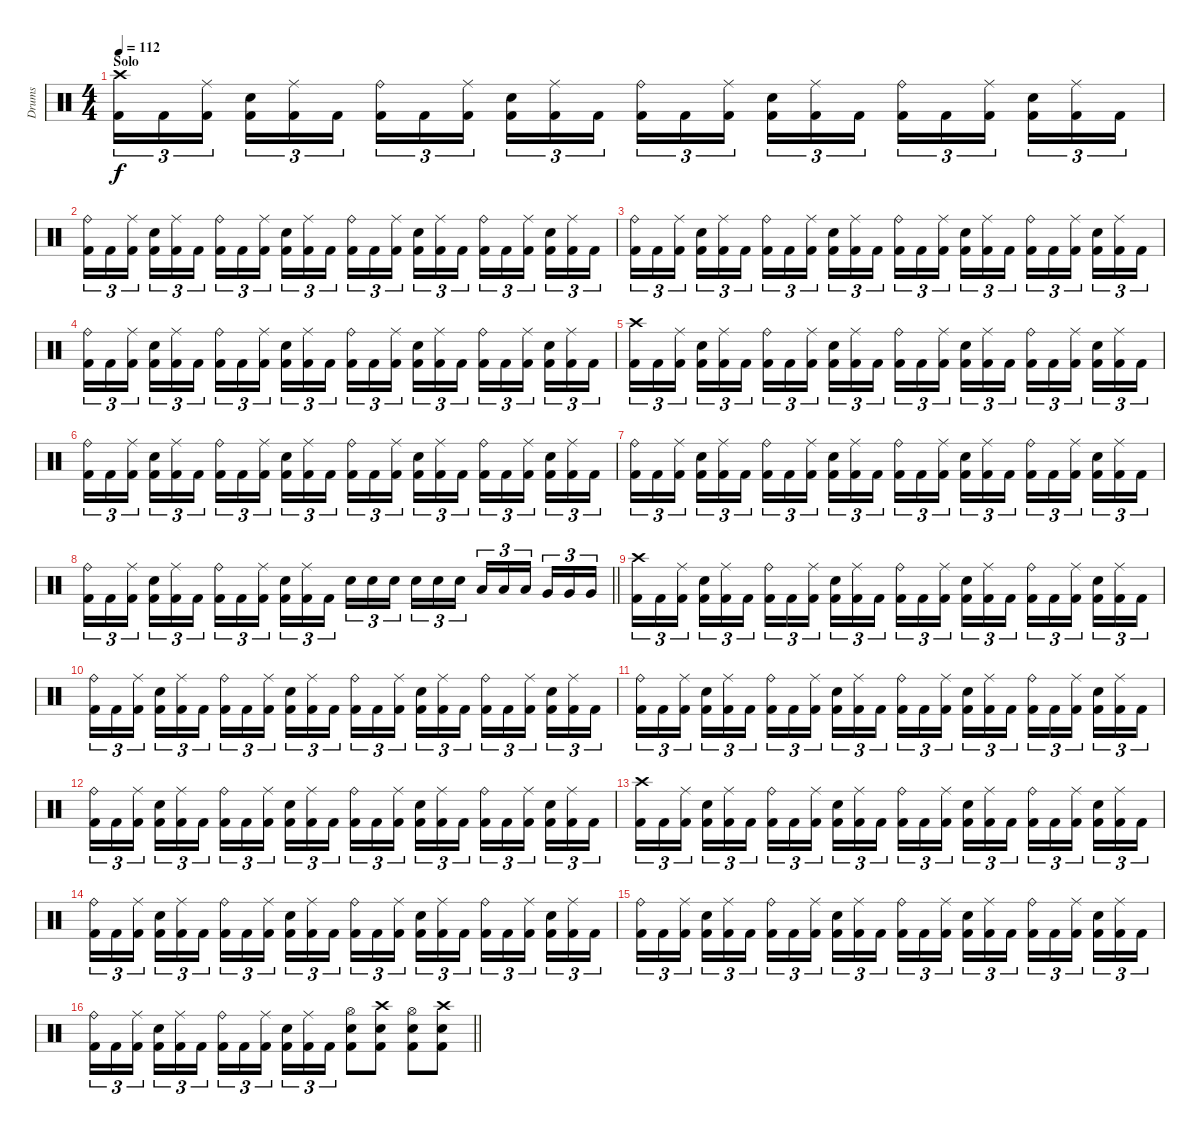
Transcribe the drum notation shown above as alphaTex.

\track ("Drums" "Drums") {instrument percussion}
\staff {score}
\articulation defaults
\ts (4 4)
\section ("" "Solo")
\tempo 112
\clef neutral
\ks c
("Crash high (hit)" "Kick (hit) 2").16{tu (3 2) dy f} "Kick (hit) 2".16{tu (3 2)} ("Ride (middle)" "Kick (hit) 2").16{tu (3 2) beam splitsecondary} ("Snare (hit) 2" "Kick (hit) 2").16{tu (3 2)} ("Ride (middle)" "Kick (hit) 2").16{tu (3 2)} "Kick (hit) 2".16{tu (3 2)} ("Ride (bell)" "Kick (hit) 2").16{tu (3 2)} "Kick (hit) 2".16{tu (3 2)} ("Ride (middle)" "Kick (hit) 2").16{tu (3 2) beam splitsecondary} ("Snare (hit) 2" "Kick (hit) 2").16{tu (3 2)} ("Ride (middle)" "Kick (hit) 2").16{tu (3 2)} "Kick (hit) 2".16{tu (3 2)} ("Ride (bell)" "Kick (hit) 2").16{tu (3 2)} "Kick (hit) 2".16{tu (3 2)} ("Ride (middle)" "Kick (hit) 2").16{tu (3 2) beam splitsecondary} ("Snare (hit) 2" "Kick (hit) 2").16{tu (3 2)} ("Ride (middle)" "Kick (hit) 2").16{tu (3 2)} "Kick (hit) 2".16{tu (3 2)} ("Ride (bell)" "Kick (hit) 2").16{tu (3 2)} "Kick (hit) 2".16{tu (3 2)} ("Ride (middle)" "Kick (hit) 2").16{tu (3 2) beam splitsecondary} ("Snare (hit) 2" "Kick (hit) 2").16{tu (3 2)} ("Ride (middle)" "Kick (hit) 2").16{tu (3 2)} "Kick (hit) 2".16{tu (3 2)} |
("Ride (bell)" "Kick (hit) 2").16{tu (3 2)} "Kick (hit) 2".16{tu (3 2)} ("Ride (middle)" "Kick (hit) 2").16{tu (3 2) beam splitsecondary} ("Snare (hit) 2" "Kick (hit) 2").16{tu (3 2)} ("Ride (middle)" "Kick (hit) 2").16{tu (3 2)} "Kick (hit) 2".16{tu (3 2)} ("Ride (bell)" "Kick (hit) 2").16{tu (3 2)} "Kick (hit) 2".16{tu (3 2)} ("Ride (middle)" "Kick (hit) 2").16{tu (3 2) beam splitsecondary} ("Snare (hit) 2" "Kick (hit) 2").16{tu (3 2)} ("Ride (middle)" "Kick (hit) 2").16{tu (3 2)} "Kick (hit) 2".16{tu (3 2)} ("Ride (bell)" "Kick (hit) 2").16{tu (3 2)} "Kick (hit) 2".16{tu (3 2)} ("Ride (middle)" "Kick (hit) 2").16{tu (3 2) beam splitsecondary} ("Snare (hit) 2" "Kick (hit) 2").16{tu (3 2)} ("Ride (middle)" "Kick (hit) 2").16{tu (3 2)} "Kick (hit) 2".16{tu (3 2)} ("Ride (bell)" "Kick (hit) 2").16{tu (3 2)} "Kick (hit) 2".16{tu (3 2)} ("Ride (middle)" "Kick (hit) 2").16{tu (3 2) beam splitsecondary} ("Snare (hit) 2" "Kick (hit) 2").16{tu (3 2)} ("Ride (middle)" "Kick (hit) 2").16{tu (3 2)} "Kick (hit) 2".16{tu (3 2)} |
("Ride (bell)" "Kick (hit) 2").16{tu (3 2)} "Kick (hit) 2".16{tu (3 2)} ("Ride (middle)" "Kick (hit) 2").16{tu (3 2) beam splitsecondary} ("Snare (hit) 2" "Kick (hit) 2").16{tu (3 2)} ("Ride (middle)" "Kick (hit) 2").16{tu (3 2)} "Kick (hit) 2".16{tu (3 2)} ("Ride (bell)" "Kick (hit) 2").16{tu (3 2)} "Kick (hit) 2".16{tu (3 2)} ("Ride (middle)" "Kick (hit) 2").16{tu (3 2) beam splitsecondary} ("Snare (hit) 2" "Kick (hit) 2").16{tu (3 2)} ("Ride (middle)" "Kick (hit) 2").16{tu (3 2)} "Kick (hit) 2".16{tu (3 2)} ("Ride (bell)" "Kick (hit) 2").16{tu (3 2)} "Kick (hit) 2".16{tu (3 2)} ("Ride (middle)" "Kick (hit) 2").16{tu (3 2) beam splitsecondary} ("Snare (hit) 2" "Kick (hit) 2").16{tu (3 2)} ("Ride (middle)" "Kick (hit) 2").16{tu (3 2)} "Kick (hit) 2".16{tu (3 2)} ("Ride (bell)" "Kick (hit) 2").16{tu (3 2)} "Kick (hit) 2".16{tu (3 2)} ("Ride (middle)" "Kick (hit) 2").16{tu (3 2) beam splitsecondary} ("Snare (hit) 2" "Kick (hit) 2").16{tu (3 2)} ("Ride (middle)" "Kick (hit) 2").16{tu (3 2)} "Kick (hit) 2".16{tu (3 2)} |
("Ride (bell)" "Kick (hit) 2").16{tu (3 2)} "Kick (hit) 2".16{tu (3 2)} ("Ride (middle)" "Kick (hit) 2").16{tu (3 2) beam splitsecondary} ("Snare (hit) 2" "Kick (hit) 2").16{tu (3 2)} ("Ride (middle)" "Kick (hit) 2").16{tu (3 2)} "Kick (hit) 2".16{tu (3 2)} ("Ride (bell)" "Kick (hit) 2").16{tu (3 2)} "Kick (hit) 2".16{tu (3 2)} ("Ride (middle)" "Kick (hit) 2").16{tu (3 2) beam splitsecondary} ("Snare (hit) 2" "Kick (hit) 2").16{tu (3 2)} ("Ride (middle)" "Kick (hit) 2").16{tu (3 2)} "Kick (hit) 2".16{tu (3 2)} ("Ride (bell)" "Kick (hit) 2").16{tu (3 2)} "Kick (hit) 2".16{tu (3 2)} ("Ride (middle)" "Kick (hit) 2").16{tu (3 2) beam splitsecondary} ("Snare (hit) 2" "Kick (hit) 2").16{tu (3 2)} ("Ride (middle)" "Kick (hit) 2").16{tu (3 2)} "Kick (hit) 2".16{tu (3 2)} ("Ride (bell)" "Kick (hit) 2").16{tu (3 2)} "Kick (hit) 2".16{tu (3 2)} ("Ride (middle)" "Kick (hit) 2").16{tu (3 2) beam splitsecondary} ("Snare (hit) 2" "Kick (hit) 2").16{tu (3 2)} ("Ride (middle)" "Kick (hit) 2").16{tu (3 2)} "Kick (hit) 2".16{tu (3 2)} |
("Crash high (hit)" "Kick (hit) 2").16{tu (3 2)} "Kick (hit) 2".16{tu (3 2)} ("Ride (middle)" "Kick (hit) 2").16{tu (3 2) beam splitsecondary} ("Snare (hit) 2" "Kick (hit) 2").16{tu (3 2)} ("Ride (middle)" "Kick (hit) 2").16{tu (3 2)} "Kick (hit) 2".16{tu (3 2)} ("Ride (bell)" "Kick (hit) 2").16{tu (3 2)} "Kick (hit) 2".16{tu (3 2)} ("Ride (middle)" "Kick (hit) 2").16{tu (3 2) beam splitsecondary} ("Snare (hit) 2" "Kick (hit) 2").16{tu (3 2)} ("Ride (middle)" "Kick (hit) 2").16{tu (3 2)} "Kick (hit) 2".16{tu (3 2)} ("Ride (bell)" "Kick (hit) 2").16{tu (3 2)} "Kick (hit) 2".16{tu (3 2)} ("Ride (middle)" "Kick (hit) 2").16{tu (3 2) beam splitsecondary} ("Snare (hit) 2" "Kick (hit) 2").16{tu (3 2)} ("Ride (middle)" "Kick (hit) 2").16{tu (3 2)} "Kick (hit) 2".16{tu (3 2)} ("Ride (bell)" "Kick (hit) 2").16{tu (3 2)} "Kick (hit) 2".16{tu (3 2)} ("Ride (middle)" "Kick (hit) 2").16{tu (3 2) beam splitsecondary} ("Snare (hit) 2" "Kick (hit) 2").16{tu (3 2)} ("Ride (middle)" "Kick (hit) 2").16{tu (3 2)} "Kick (hit) 2".16{tu (3 2)} |
("Ride (bell)" "Kick (hit) 2").16{tu (3 2)} "Kick (hit) 2".16{tu (3 2)} ("Ride (middle)" "Kick (hit) 2").16{tu (3 2) beam splitsecondary} ("Snare (hit) 2" "Kick (hit) 2").16{tu (3 2)} ("Ride (middle)" "Kick (hit) 2").16{tu (3 2)} "Kick (hit) 2".16{tu (3 2)} ("Ride (bell)" "Kick (hit) 2").16{tu (3 2)} "Kick (hit) 2".16{tu (3 2)} ("Ride (middle)" "Kick (hit) 2").16{tu (3 2) beam splitsecondary} ("Snare (hit) 2" "Kick (hit) 2").16{tu (3 2)} ("Ride (middle)" "Kick (hit) 2").16{tu (3 2)} "Kick (hit) 2".16{tu (3 2)} ("Ride (bell)" "Kick (hit) 2").16{tu (3 2)} "Kick (hit) 2".16{tu (3 2)} ("Ride (middle)" "Kick (hit) 2").16{tu (3 2) beam splitsecondary} ("Snare (hit) 2" "Kick (hit) 2").16{tu (3 2)} ("Ride (middle)" "Kick (hit) 2").16{tu (3 2)} "Kick (hit) 2".16{tu (3 2)} ("Ride (bell)" "Kick (hit) 2").16{tu (3 2)} "Kick (hit) 2".16{tu (3 2)} ("Ride (middle)" "Kick (hit) 2").16{tu (3 2) beam splitsecondary} ("Snare (hit) 2" "Kick (hit) 2").16{tu (3 2)} ("Ride (middle)" "Kick (hit) 2").16{tu (3 2)} "Kick (hit) 2".16{tu (3 2)} |
("Ride (bell)" "Kick (hit) 2").16{tu (3 2)} "Kick (hit) 2".16{tu (3 2)} ("Ride (middle)" "Kick (hit) 2").16{tu (3 2) beam splitsecondary} ("Snare (hit) 2" "Kick (hit) 2").16{tu (3 2)} ("Ride (middle)" "Kick (hit) 2").16{tu (3 2)} "Kick (hit) 2".16{tu (3 2)} ("Ride (bell)" "Kick (hit) 2").16{tu (3 2)} "Kick (hit) 2".16{tu (3 2)} ("Ride (middle)" "Kick (hit) 2").16{tu (3 2) beam splitsecondary} ("Snare (hit) 2" "Kick (hit) 2").16{tu (3 2)} ("Ride (middle)" "Kick (hit) 2").16{tu (3 2)} "Kick (hit) 2".16{tu (3 2)} ("Ride (bell)" "Kick (hit) 2").16{tu (3 2)} "Kick (hit) 2".16{tu (3 2)} ("Ride (middle)" "Kick (hit) 2").16{tu (3 2) beam splitsecondary} ("Snare (hit) 2" "Kick (hit) 2").16{tu (3 2)} ("Ride (middle)" "Kick (hit) 2").16{tu (3 2)} "Kick (hit) 2".16{tu (3 2)} ("Ride (bell)" "Kick (hit) 2").16{tu (3 2)} "Kick (hit) 2".16{tu (3 2)} ("Ride (middle)" "Kick (hit) 2").16{tu (3 2) beam splitsecondary} ("Snare (hit) 2" "Kick (hit) 2").16{tu (3 2)} ("Ride (middle)" "Kick (hit) 2").16{tu (3 2)} "Kick (hit) 2".16{tu (3 2)} |
\barLineRight lightlight
("Ride (bell)" "Kick (hit) 2").16{tu (3 2)} "Kick (hit) 2".16{tu (3 2)} ("Ride (middle)" "Kick (hit) 2").16{tu (3 2) beam splitsecondary} ("Snare (hit) 2" "Kick (hit) 2").16{tu (3 2)} ("Ride (middle)" "Kick (hit) 2").16{tu (3 2)} "Kick (hit) 2".16{tu (3 2)} ("Ride (bell)" "Kick (hit) 2").16{tu (3 2)} "Kick (hit) 2".16{tu (3 2)} ("Ride (middle)" "Kick (hit) 2").16{tu (3 2) beam splitsecondary} ("Snare (hit) 2" "Kick (hit) 2").16{tu (3 2)} ("Ride (middle)" "Kick (hit) 2").16{tu (3 2)} "Kick (hit) 2".16{tu (3 2)} "Snare (hit) 2".16{tu (3 2)} "Snare (hit) 2".16{tu (3 2)} "Snare (hit) 2".16{tu (3 2) beam splitsecondary} "Snare (hit) 2".16{tu (3 2)} "Snare (hit) 2".16{tu (3 2)} "Snare (hit) 2".16{tu (3 2)} "Low Tom (hit)".16{tu (3 2)} "Low Tom (hit)".16{tu (3 2)} "Low Tom (hit)".16{tu (3 2) beam splitsecondary} "Very Low Tom (hit)".16{tu (3 2)} "Very Low Tom (hit)".16{tu (3 2)} "Very Low Tom (hit)".16{tu (3 2)} |
("Crash high (hit)" "Kick (hit) 2").16{tu (3 2)} "Kick (hit) 2".16{tu (3 2)} ("Ride (middle)" "Kick (hit) 2").16{tu (3 2) beam splitsecondary} ("Snare (hit) 2" "Kick (hit) 2").16{tu (3 2)} ("Ride (middle)" "Kick (hit) 2").16{tu (3 2)} "Kick (hit) 2".16{tu (3 2)} ("Ride (bell)" "Kick (hit) 2").16{tu (3 2)} "Kick (hit) 2".16{tu (3 2)} ("Ride (middle)" "Kick (hit) 2").16{tu (3 2) beam splitsecondary} ("Snare (hit) 2" "Kick (hit) 2").16{tu (3 2)} ("Ride (middle)" "Kick (hit) 2").16{tu (3 2)} "Kick (hit) 2".16{tu (3 2)} ("Ride (bell)" "Kick (hit) 2").16{tu (3 2)} "Kick (hit) 2".16{tu (3 2)} ("Ride (middle)" "Kick (hit) 2").16{tu (3 2) beam splitsecondary} ("Snare (hit) 2" "Kick (hit) 2").16{tu (3 2)} ("Ride (middle)" "Kick (hit) 2").16{tu (3 2)} "Kick (hit) 2".16{tu (3 2)} ("Ride (bell)" "Kick (hit) 2").16{tu (3 2)} "Kick (hit) 2".16{tu (3 2)} ("Ride (middle)" "Kick (hit) 2").16{tu (3 2) beam splitsecondary} ("Snare (hit) 2" "Kick (hit) 2").16{tu (3 2)} ("Ride (middle)" "Kick (hit) 2").16{tu (3 2)} "Kick (hit) 2".16{tu (3 2)} |
("Ride (bell)" "Kick (hit) 2").16{tu (3 2)} "Kick (hit) 2".16{tu (3 2)} ("Ride (middle)" "Kick (hit) 2").16{tu (3 2) beam splitsecondary} ("Snare (hit) 2" "Kick (hit) 2").16{tu (3 2)} ("Ride (middle)" "Kick (hit) 2").16{tu (3 2)} "Kick (hit) 2".16{tu (3 2)} ("Ride (bell)" "Kick (hit) 2").16{tu (3 2)} "Kick (hit) 2".16{tu (3 2)} ("Ride (middle)" "Kick (hit) 2").16{tu (3 2) beam splitsecondary} ("Snare (hit) 2" "Kick (hit) 2").16{tu (3 2)} ("Ride (middle)" "Kick (hit) 2").16{tu (3 2)} "Kick (hit) 2".16{tu (3 2)} ("Ride (bell)" "Kick (hit) 2").16{tu (3 2)} "Kick (hit) 2".16{tu (3 2)} ("Ride (middle)" "Kick (hit) 2").16{tu (3 2) beam splitsecondary} ("Snare (hit) 2" "Kick (hit) 2").16{tu (3 2)} ("Ride (middle)" "Kick (hit) 2").16{tu (3 2)} "Kick (hit) 2".16{tu (3 2)} ("Ride (bell)" "Kick (hit) 2").16{tu (3 2)} "Kick (hit) 2".16{tu (3 2)} ("Ride (middle)" "Kick (hit) 2").16{tu (3 2) beam splitsecondary} ("Snare (hit) 2" "Kick (hit) 2").16{tu (3 2)} ("Ride (middle)" "Kick (hit) 2").16{tu (3 2)} "Kick (hit) 2".16{tu (3 2)} |
("Ride (bell)" "Kick (hit) 2").16{tu (3 2)} "Kick (hit) 2".16{tu (3 2)} ("Ride (middle)" "Kick (hit) 2").16{tu (3 2) beam splitsecondary} ("Snare (hit) 2" "Kick (hit) 2").16{tu (3 2)} ("Ride (middle)" "Kick (hit) 2").16{tu (3 2)} "Kick (hit) 2".16{tu (3 2)} ("Ride (bell)" "Kick (hit) 2").16{tu (3 2)} "Kick (hit) 2".16{tu (3 2)} ("Ride (middle)" "Kick (hit) 2").16{tu (3 2) beam splitsecondary} ("Snare (hit) 2" "Kick (hit) 2").16{tu (3 2)} ("Ride (middle)" "Kick (hit) 2").16{tu (3 2)} "Kick (hit) 2".16{tu (3 2)} ("Ride (bell)" "Kick (hit) 2").16{tu (3 2)} "Kick (hit) 2".16{tu (3 2)} ("Ride (middle)" "Kick (hit) 2").16{tu (3 2) beam splitsecondary} ("Snare (hit) 2" "Kick (hit) 2").16{tu (3 2)} ("Ride (middle)" "Kick (hit) 2").16{tu (3 2)} "Kick (hit) 2".16{tu (3 2)} ("Ride (bell)" "Kick (hit) 2").16{tu (3 2)} "Kick (hit) 2".16{tu (3 2)} ("Ride (middle)" "Kick (hit) 2").16{tu (3 2) beam splitsecondary} ("Snare (hit) 2" "Kick (hit) 2").16{tu (3 2)} ("Ride (middle)" "Kick (hit) 2").16{tu (3 2)} "Kick (hit) 2".16{tu (3 2)} |
("Ride (bell)" "Kick (hit) 2").16{tu (3 2)} "Kick (hit) 2".16{tu (3 2)} ("Ride (middle)" "Kick (hit) 2").16{tu (3 2) beam splitsecondary} ("Snare (hit) 2" "Kick (hit) 2").16{tu (3 2)} ("Ride (middle)" "Kick (hit) 2").16{tu (3 2)} "Kick (hit) 2".16{tu (3 2)} ("Ride (bell)" "Kick (hit) 2").16{tu (3 2)} "Kick (hit) 2".16{tu (3 2)} ("Ride (middle)" "Kick (hit) 2").16{tu (3 2) beam splitsecondary} ("Snare (hit) 2" "Kick (hit) 2").16{tu (3 2)} ("Ride (middle)" "Kick (hit) 2").16{tu (3 2)} "Kick (hit) 2".16{tu (3 2)} ("Ride (bell)" "Kick (hit) 2").16{tu (3 2)} "Kick (hit) 2".16{tu (3 2)} ("Ride (middle)" "Kick (hit) 2").16{tu (3 2) beam splitsecondary} ("Snare (hit) 2" "Kick (hit) 2").16{tu (3 2)} ("Ride (middle)" "Kick (hit) 2").16{tu (3 2)} "Kick (hit) 2".16{tu (3 2)} ("Ride (bell)" "Kick (hit) 2").16{tu (3 2)} "Kick (hit) 2".16{tu (3 2)} ("Ride (middle)" "Kick (hit) 2").16{tu (3 2) beam splitsecondary} ("Snare (hit) 2" "Kick (hit) 2").16{tu (3 2)} ("Ride (middle)" "Kick (hit) 2").16{tu (3 2)} "Kick (hit) 2".16{tu (3 2)} |
("Crash high (hit)" "Kick (hit) 2").16{tu (3 2)} "Kick (hit) 2".16{tu (3 2)} ("Ride (middle)" "Kick (hit) 2").16{tu (3 2) beam splitsecondary} ("Snare (hit) 2" "Kick (hit) 2").16{tu (3 2)} ("Ride (middle)" "Kick (hit) 2").16{tu (3 2)} "Kick (hit) 2".16{tu (3 2)} ("Ride (bell)" "Kick (hit) 2").16{tu (3 2)} "Kick (hit) 2".16{tu (3 2)} ("Ride (middle)" "Kick (hit) 2").16{tu (3 2) beam splitsecondary} ("Snare (hit) 2" "Kick (hit) 2").16{tu (3 2)} ("Ride (middle)" "Kick (hit) 2").16{tu (3 2)} "Kick (hit) 2".16{tu (3 2)} ("Ride (bell)" "Kick (hit) 2").16{tu (3 2)} "Kick (hit) 2".16{tu (3 2)} ("Ride (middle)" "Kick (hit) 2").16{tu (3 2) beam splitsecondary} ("Snare (hit) 2" "Kick (hit) 2").16{tu (3 2)} ("Ride (middle)" "Kick (hit) 2").16{tu (3 2)} "Kick (hit) 2".16{tu (3 2)} ("Ride (bell)" "Kick (hit) 2").16{tu (3 2)} "Kick (hit) 2".16{tu (3 2)} ("Ride (middle)" "Kick (hit) 2").16{tu (3 2) beam splitsecondary} ("Snare (hit) 2" "Kick (hit) 2").16{tu (3 2)} ("Ride (middle)" "Kick (hit) 2").16{tu (3 2)} "Kick (hit) 2".16{tu (3 2)} |
("Ride (bell)" "Kick (hit) 2").16{tu (3 2)} "Kick (hit) 2".16{tu (3 2)} ("Ride (middle)" "Kick (hit) 2").16{tu (3 2) beam splitsecondary} ("Snare (hit) 2" "Kick (hit) 2").16{tu (3 2)} ("Ride (middle)" "Kick (hit) 2").16{tu (3 2)} "Kick (hit) 2".16{tu (3 2)} ("Ride (bell)" "Kick (hit) 2").16{tu (3 2)} "Kick (hit) 2".16{tu (3 2)} ("Ride (middle)" "Kick (hit) 2").16{tu (3 2) beam splitsecondary} ("Snare (hit) 2" "Kick (hit) 2").16{tu (3 2)} ("Ride (middle)" "Kick (hit) 2").16{tu (3 2)} "Kick (hit) 2".16{tu (3 2)} ("Ride (bell)" "Kick (hit) 2").16{tu (3 2)} "Kick (hit) 2".16{tu (3 2)} ("Ride (middle)" "Kick (hit) 2").16{tu (3 2) beam splitsecondary} ("Snare (hit) 2" "Kick (hit) 2").16{tu (3 2)} ("Ride (middle)" "Kick (hit) 2").16{tu (3 2)} "Kick (hit) 2".16{tu (3 2)} ("Ride (bell)" "Kick (hit) 2").16{tu (3 2)} "Kick (hit) 2".16{tu (3 2)} ("Ride (middle)" "Kick (hit) 2").16{tu (3 2) beam splitsecondary} ("Snare (hit) 2" "Kick (hit) 2").16{tu (3 2)} ("Ride (middle)" "Kick (hit) 2").16{tu (3 2)} "Kick (hit) 2".16{tu (3 2)} |
("Ride (bell)" "Kick (hit) 2").16{tu (3 2)} "Kick (hit) 2".16{tu (3 2)} ("Ride (middle)" "Kick (hit) 2").16{tu (3 2) beam splitsecondary} ("Snare (hit) 2" "Kick (hit) 2").16{tu (3 2)} ("Ride (middle)" "Kick (hit) 2").16{tu (3 2)} "Kick (hit) 2".16{tu (3 2)} ("Ride (bell)" "Kick (hit) 2").16{tu (3 2)} "Kick (hit) 2".16{tu (3 2)} ("Ride (middle)" "Kick (hit) 2").16{tu (3 2) beam splitsecondary} ("Snare (hit) 2" "Kick (hit) 2").16{tu (3 2)} ("Ride (middle)" "Kick (hit) 2").16{tu (3 2)} "Kick (hit) 2".16{tu (3 2)} ("Ride (bell)" "Kick (hit) 2").16{tu (3 2)} "Kick (hit) 2".16{tu (3 2)} ("Ride (middle)" "Kick (hit) 2").16{tu (3 2) beam splitsecondary} ("Snare (hit) 2" "Kick (hit) 2").16{tu (3 2)} ("Ride (middle)" "Kick (hit) 2").16{tu (3 2)} "Kick (hit) 2".16{tu (3 2)} ("Ride (bell)" "Kick (hit) 2").16{tu (3 2)} "Kick (hit) 2".16{tu (3 2)} ("Ride (middle)" "Kick (hit) 2").16{tu (3 2) beam splitsecondary} ("Snare (hit) 2" "Kick (hit) 2").16{tu (3 2)} ("Ride (middle)" "Kick (hit) 2").16{tu (3 2)} "Kick (hit) 2".16{tu (3 2)} |
\barLineRight lightlight
("Ride (bell)" "Kick (hit) 2").16{tu (3 2)} "Kick (hit) 2".16{tu (3 2)} ("Ride (middle)" "Kick (hit) 2").16{tu (3 2) beam splitsecondary} ("Snare (hit) 2" "Kick (hit) 2").16{tu (3 2)} ("Ride (middle)" "Kick (hit) 2").16{tu (3 2)} "Kick (hit) 2".16{tu (3 2)} ("Ride (bell)" "Kick (hit) 2").16{tu (3 2)} "Kick (hit) 2".16{tu (3 2)} ("Ride (middle)" "Kick (hit) 2").16{tu (3 2) beam splitsecondary} ("Snare (hit) 2" "Kick (hit) 2").16{tu (3 2)} ("Ride (middle)" "Kick (hit) 2").16{tu (3 2)} "Kick (hit) 2".16{tu (3 2)} ("Hi-Hat (open)" "Snare (hit) 2" "Kick (hit) 2").8 ("Crash high (hit)" "Snare (hit) 2" "Kick (hit) 2").8 ("Hi-Hat (open)" "Snare (hit) 2" "Kick (hit) 2").8 ("Crash high (hit)" "Snare (hit) 2" "Kick (hit) 2").8
